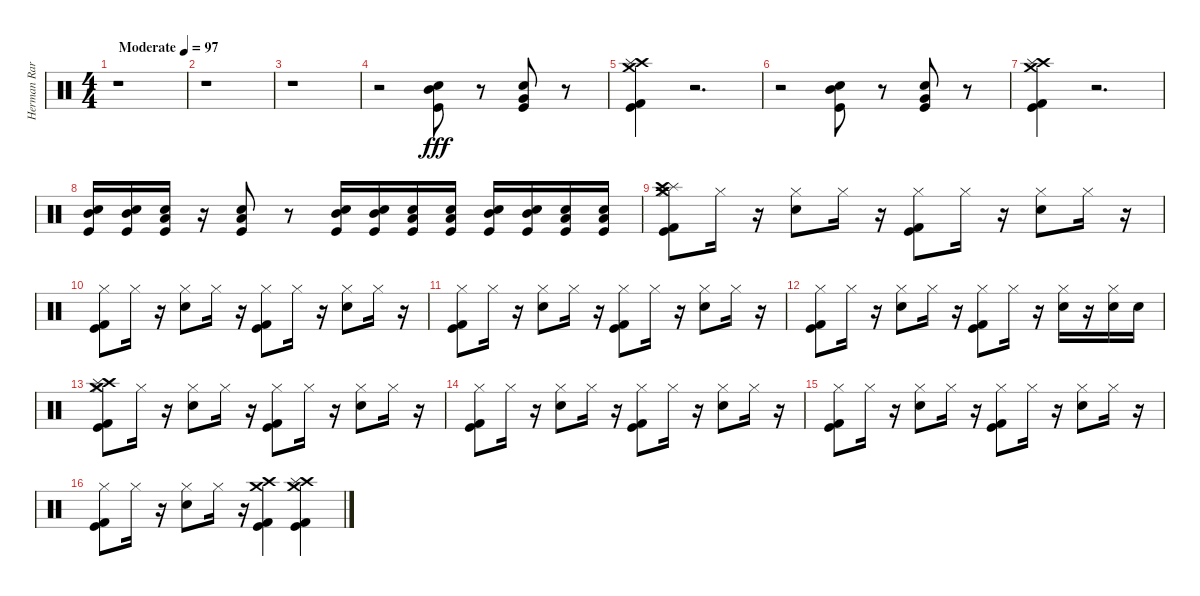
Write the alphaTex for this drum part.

\track ("Herman Rarebell" "Herman Rar") {instrument percussion}
\staff {score}
\articulation defaults
\ts (4 4)
\tempo (97 "Moderate")
\clef neutral
\ks c
r.1{dy fff} |
r.1 |
r.1 |
r.2 ("Mid Tom (hit)" "Kick (hit)" "Electric Snare (hit)").8 r.8 ("Very Low Tom (hit)" "Kick (hit)" "Electric Snare (hit)").8 r.8 |
("Kick (hit) 2" "Kick (hit)" "Crash high (hit)" "Splash (hit)" "Crash medium (hit)").4 r.2{d} |
r.2 ("Mid Tom (hit)" "Kick (hit)" "Electric Snare (hit)").8 r.8 ("Very Low Tom (hit)" "Kick (hit)" "Electric Snare (hit)").8 r.8 |
("Kick (hit) 2" "Kick (hit)" "Crash high (hit)" "Splash (hit)" "Crash medium (hit)").4 r.2{d} |
("Mid Tom (hit)" "Kick (hit)" "Electric Snare (hit)").16 ("Mid Tom (hit)" "Kick (hit)" "Electric Snare (hit)").16 ("Low Tom (hit)" "Kick (hit)" "Electric Snare (hit)").16 r.16 ("Kick (hit)" "Low Floor Tom (hit)" "Electric Snare (hit)").8 r.8 ("Mid Tom (hit)" "Kick (hit)" "Electric Snare (hit)").16 ("Mid Tom (hit)" "Kick (hit)" "Electric Snare (hit)").16 ("Low Tom (hit)" "Kick (hit)" "Electric Snare (hit)").16 ("Kick (hit)" "Low Floor Tom (hit)" "Electric Snare (hit)").16 ("Mid Tom (hit)" "Kick (hit)" "Electric Snare (hit)").16 ("Mid Tom (hit)" "Kick (hit)" "Electric Snare (hit)").16 ("Low Tom (hit)" "Kick (hit)" "Electric Snare (hit)").16 ("Kick (hit)" "Low Floor Tom (hit)" "Electric Snare (hit)").16 |
("Kick (hit) 2" "Kick (hit)" "Crash medium (hit)" "Splash (hit)" "Crash high (hit)" "Hi-Hat (closed)").8 "Hi-Hat (closed)".16 r.16 ("Snare (hit) 2" "Hi-Hat (closed)").8 "Hi-Hat (closed)".16 r.16 ("Kick (hit) 2" "Kick (hit)" "Hi-Hat (closed)").8 "Hi-Hat (closed)".16 r.16 ("Snare (hit) 2" "Hi-Hat (closed)").8 "Hi-Hat (closed)".16 r.16 |
("Hi-Hat (closed)" "Kick (hit)" "Kick (hit) 2").8 "Hi-Hat (closed)".16 r.16 ("Snare (hit) 2" "Hi-Hat (closed)").8 "Hi-Hat (closed)".16 r.16 ("Kick (hit) 2" "Kick (hit)" "Hi-Hat (closed)").8 "Hi-Hat (closed)".16 r.16 ("Snare (hit) 2" "Hi-Hat (closed)").8 "Hi-Hat (closed)".16 r.16 |
("Hi-Hat (closed)" "Kick (hit)" "Kick (hit) 2").8 "Hi-Hat (closed)".16 r.16 ("Snare (hit) 2" "Hi-Hat (closed)").8 "Hi-Hat (closed)".16 r.16 ("Kick (hit) 2" "Kick (hit)" "Hi-Hat (closed)").8 "Hi-Hat (closed)".16 r.16 ("Snare (hit) 2" "Hi-Hat (closed)").8 "Hi-Hat (closed)".16 r.16 |
("Hi-Hat (closed)" "Kick (hit)" "Kick (hit) 2").8 "Hi-Hat (closed)".16 r.16 ("Snare (hit) 2" "Hi-Hat (closed)").8 "Hi-Hat (closed)".16 r.16 ("Kick (hit) 2" "Kick (hit)" "Hi-Hat (closed)").8 "Hi-Hat (closed)".16 r.16 ("Hi-Hat (closed)" "Snare (hit) 2").16 r.16 ("Hi-Hat (closed)" "Snare (hit) 2").16 "Snare (hit) 2".16 |
("Hi-Hat (closed)" "Crash high (hit)" "Splash (hit)" "Crash medium (hit)" "Kick (hit)" "Kick (hit) 2").8 "Hi-Hat (closed)".16 r.16 ("Snare (hit) 2" "Hi-Hat (closed)").8 "Hi-Hat (closed)".16 r.16 ("Kick (hit) 2" "Kick (hit)" "Hi-Hat (closed)").8 "Hi-Hat (closed)".16 r.16 ("Snare (hit) 2" "Hi-Hat (closed)").8 "Hi-Hat (closed)".16 r.16 |
("Hi-Hat (closed)" "Kick (hit)" "Kick (hit) 2").8 "Hi-Hat (closed)".16 r.16 ("Snare (hit) 2" "Hi-Hat (closed)").8 "Hi-Hat (closed)".16 r.16 ("Kick (hit) 2" "Kick (hit)" "Hi-Hat (closed)").8 "Hi-Hat (closed)".16 r.16 ("Snare (hit) 2" "Hi-Hat (closed)").8 "Hi-Hat (closed)".16 r.16 |
("Hi-Hat (closed)" "Kick (hit)" "Kick (hit) 2").8 "Hi-Hat (closed)".16 r.16 ("Snare (hit) 2" "Hi-Hat (closed)").8 "Hi-Hat (closed)".16 r.16 ("Kick (hit) 2" "Kick (hit)" "Hi-Hat (closed)").8 "Hi-Hat (closed)".16 r.16 ("Snare (hit) 2" "Hi-Hat (closed)").8 "Hi-Hat (closed)".16 r.16 |
("Hi-Hat (closed)" "Kick (hit)" "Kick (hit) 2").8 "Hi-Hat (closed)".16 r.16 ("Hi-Hat (closed)" "Snare (hit) 2").8 "Hi-Hat (closed)".16 r.16 ("Kick (hit) 2" "Kick (hit)" "Crash high (hit)" "Crash medium (hit)").4 ("Kick (hit) 2" "Kick (hit)" "Crash high (hit)" "Crash medium (hit)" "Splash (hit)").4
